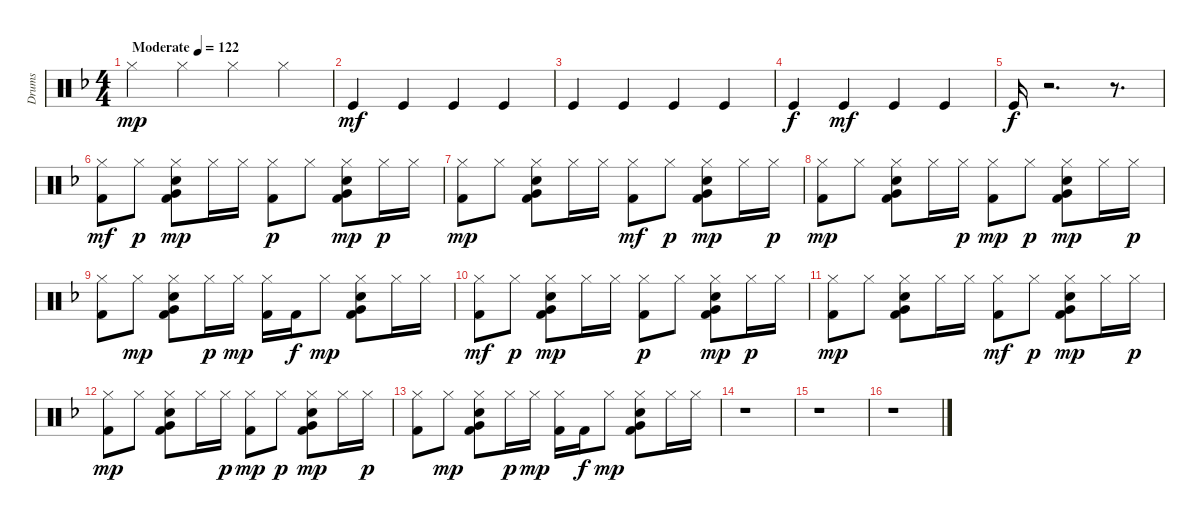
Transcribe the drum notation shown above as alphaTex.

\track ("Drums" "Drums") {instrument percussion}
\staff {score}
\articulation defaults
\ts (4 4)
\tempo (122 "Moderate")
\clef neutral
\ks f "Hi-Hat (closed)".4{dy mp} "Hi-Hat (closed)".4 "Hi-Hat (closed)".4 "Hi-Hat (closed)".4
|
"Kick (hit)".4{dy mf} "Kick (hit)".4 "Kick (hit)".4 "Kick (hit)".4 |
"Kick (hit)".4 "Kick (hit)".4 "Kick (hit)".4 "Kick (hit)".4 |
"Kick (hit)".4{dy f} "Kick (hit)".4{dy mf} "Kick (hit)".4 "Kick (hit)".4 |
"Kick (hit)".16{dy f} r.2{d} r.8{d} |
("Kick (hit) 2" "Hi-Hat (closed)").8{dy mf} "Hi-Hat (closed)".8{dy p} ("Kick (hit) 2" "Snare (hit) 2" "Hi-Hat (closed)" "Very Low Tom (hit)").8{dy mp} "Hi-Hat (closed)".16 "Hi-Hat (closed)".16 ("Kick (hit) 2" "Hi-Hat (closed)").8{dy p} "Hi-Hat (closed)".8 ("Kick (hit) 2" "Snare (hit) 2" "Hi-Hat (closed)" "Very Low Tom (hit)").8{dy mp} "Hi-Hat (closed)".16{dy p} "Hi-Hat (closed)".16 |
("Kick (hit) 2" "Hi-Hat (closed)").8{dy mp} "Hi-Hat (closed)".8 ("Kick (hit) 2" "Snare (hit) 2" "Hi-Hat (closed)" "Very Low Tom (hit)").8 "Hi-Hat (closed)".16 "Hi-Hat (closed)".16 ("Kick (hit) 2" "Hi-Hat (closed)").8{dy mf} "Hi-Hat (closed)".8{dy p} ("Kick (hit) 2" "Snare (hit) 2" "Hi-Hat (closed)" "Very Low Tom (hit)").8{dy mp} "Hi-Hat (closed)".16 "Hi-Hat (closed)".16{dy p} |
("Kick (hit) 2" "Hi-Hat (closed)").8{dy mp} "Hi-Hat (closed)".8 ("Kick (hit) 2" "Snare (hit) 2" "Hi-Hat (closed)" "Very Low Tom (hit)").8 "Hi-Hat (closed)".16 "Hi-Hat (closed)".16{dy p} ("Kick (hit) 2" "Hi-Hat (closed)").8{dy mp} "Hi-Hat (closed)".8{dy p} ("Kick (hit) 2" "Snare (hit) 2" "Hi-Hat (closed)" "Very Low Tom (hit)").8{dy mp} "Hi-Hat (closed)".16 "Hi-Hat (closed)".16{dy p} |
("Kick (hit) 2" "Hi-Hat (closed)").8 "Hi-Hat (closed)".8{dy mp} ("Kick (hit) 2" "Snare (hit) 2" "Hi-Hat (closed)" "Very Low Tom (hit)").8 "Hi-Hat (closed)".16{dy p} "Hi-Hat (closed)".16{dy mp} ("Kick (hit) 2" "Hi-Hat (closed)").16 "Kick (hit) 2".16{dy f} "Hi-Hat (closed)".8{dy mp} ("Kick (hit) 2" "Snare (hit) 2" "Hi-Hat (closed)" "Very Low Tom (hit)").8 "Hi-Hat (closed)".16 "Hi-Hat (closed)".16 |
("Kick (hit) 2" "Hi-Hat (closed)").8{dy mf} "Hi-Hat (closed)".8{dy p} ("Kick (hit) 2" "Snare (hit) 2" "Hi-Hat (closed)" "Very Low Tom (hit)").8{dy mp} "Hi-Hat (closed)".16 "Hi-Hat (closed)".16 ("Kick (hit) 2" "Hi-Hat (closed)").8{dy p} "Hi-Hat (closed)".8 ("Kick (hit) 2" "Snare (hit) 2" "Hi-Hat (closed)" "Very Low Tom (hit)").8{dy mp} "Hi-Hat (closed)".16{dy p} "Hi-Hat (closed)".16 |
("Kick (hit) 2" "Hi-Hat (closed)").8{dy mp} "Hi-Hat (closed)".8 ("Kick (hit) 2" "Snare (hit) 2" "Hi-Hat (closed)" "Very Low Tom (hit)").8 "Hi-Hat (closed)".16 "Hi-Hat (closed)".16 ("Kick (hit) 2" "Hi-Hat (closed)").8{dy mf} "Hi-Hat (closed)".8{dy p} ("Kick (hit) 2" "Snare (hit) 2" "Hi-Hat (closed)" "Very Low Tom (hit)").8{dy mp} "Hi-Hat (closed)".16 "Hi-Hat (closed)".16{dy p} |
("Kick (hit) 2" "Hi-Hat (closed)").8{dy mp} "Hi-Hat (closed)".8 ("Kick (hit) 2" "Snare (hit) 2" "Hi-Hat (closed)" "Very Low Tom (hit)").8 "Hi-Hat (closed)".16 "Hi-Hat (closed)".16{dy p} ("Kick (hit) 2" "Hi-Hat (closed)").8{dy mp} "Hi-Hat (closed)".8{dy p} ("Kick (hit) 2" "Snare (hit) 2" "Hi-Hat (closed)" "Very Low Tom (hit)").8{dy mp} "Hi-Hat (closed)".16 "Hi-Hat (closed)".16{dy p} |
("Kick (hit) 2" "Hi-Hat (closed)").8 "Hi-Hat (closed)".8{dy mp} ("Kick (hit) 2" "Snare (hit) 2" "Hi-Hat (closed)" "Very Low Tom (hit)").8 "Hi-Hat (closed)".16{dy p} "Hi-Hat (closed)".16{dy mp} ("Kick (hit) 2" "Hi-Hat (closed)").16 "Kick (hit) 2".16{dy f} "Hi-Hat (closed)".8{dy mp} ("Kick (hit) 2" "Snare (hit) 2" "Hi-Hat (closed)" "Very Low Tom (hit)").8 "Hi-Hat (closed)".16 "Hi-Hat (closed)".16 |
r.1 |
r.1 |
r.1
